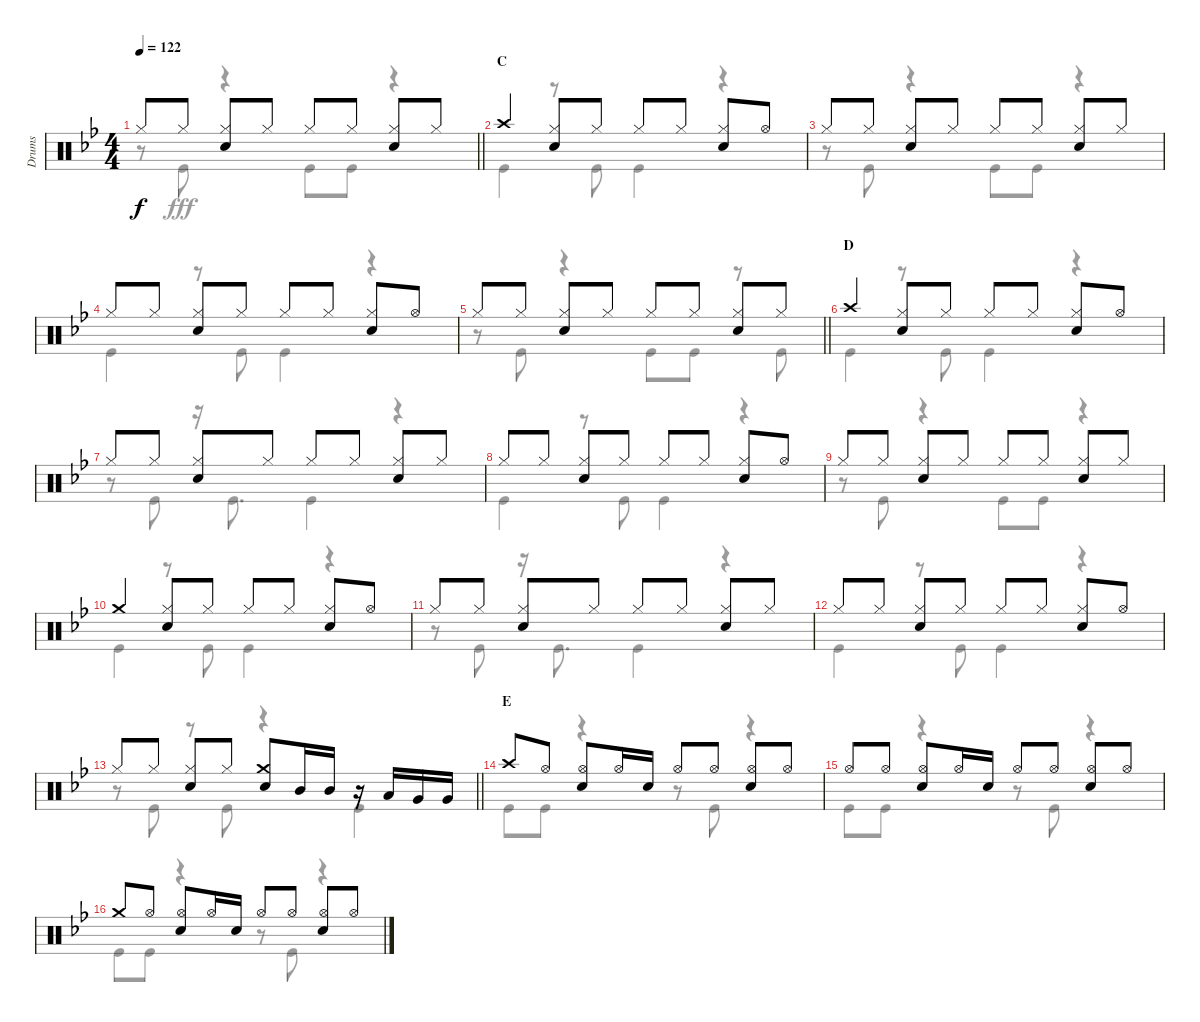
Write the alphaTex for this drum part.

\track ("Drums" "Drums") {instrument percussion}
\staff {score}
\articulation defaults
\voice
\ts (4 4)
\tempo 122
\clef neutral
\barLineRight lightlight
\ks bb "Hi-Hat (closed)".8{dy f} "Hi-Hat (closed)".8
("Hi-Hat (closed)" "Snare (hit) 2").8 "Hi-Hat (closed)".8 "Hi-Hat (closed)".8 "Hi-Hat (closed)".8 ("Hi-Hat (closed)" "Snare (hit) 2").8 "Hi-Hat (closed)".8 |
\section ("" "C")
"Crash high (hit)".4 ("Hi-Hat (closed)" "Snare (hit) 2").8 "Hi-Hat (closed)".8 "Hi-Hat (closed)".8 "Hi-Hat (closed)".8 ("Hi-Hat (closed)" "Snare (hit) 2").8 "Hi-Hat (open)".8 |
"Hi-Hat (closed)".8 "Hi-Hat (closed)".8 ("Hi-Hat (closed)" "Snare (hit) 2").8 "Hi-Hat (closed)".8 "Hi-Hat (closed)".8 "Hi-Hat (closed)".8 ("Hi-Hat (closed)" "Snare (hit) 2").8 "Hi-Hat (closed)".8 |
"Hi-Hat (closed)".8 "Hi-Hat (closed)".8 ("Hi-Hat (closed)" "Snare (hit) 2").8 "Hi-Hat (closed)".8 "Hi-Hat (closed)".8 "Hi-Hat (closed)".8 ("Hi-Hat (closed)" "Snare (hit) 2").8 "Hi-Hat (open)".8 |
\barLineRight lightlight "Hi-Hat (closed)".8 "Hi-Hat (closed)".8
("Hi-Hat (closed)" "Snare (hit) 2").8 "Hi-Hat (closed)".8 "Hi-Hat (closed)".8 "Hi-Hat (closed)".8 ("Hi-Hat (closed)" "Snare (hit) 2").8 "Hi-Hat (closed)".8 |
\section ("" "D")
"Crash high (hit)".4 ("Hi-Hat (closed)" "Snare (hit) 2").8 "Hi-Hat (closed)".8 "Hi-Hat (closed)".8 "Hi-Hat (closed)".8 ("Hi-Hat (closed)" "Snare (hit) 2").8 "Hi-Hat (open)".8 |
"Hi-Hat (closed)".8 "Hi-Hat (closed)".8 ("Hi-Hat (closed)" "Snare (hit) 2").8 "Hi-Hat (closed)".8 "Hi-Hat (closed)".8 "Hi-Hat (closed)".8 ("Hi-Hat (closed)" "Snare (hit) 2").8 "Hi-Hat (closed)".8 |
"Hi-Hat (closed)".8 "Hi-Hat (closed)".8 ("Hi-Hat (closed)" "Snare (hit) 2").8 "Hi-Hat (closed)".8 "Hi-Hat (closed)".8 "Hi-Hat (closed)".8 ("Hi-Hat (closed)" "Snare (hit) 2").8 "Hi-Hat (open)".8 |
"Hi-Hat (closed)".8 "Hi-Hat (closed)".8 ("Hi-Hat (closed)" "Snare (hit) 2").8 "Hi-Hat (closed)".8 "Hi-Hat (closed)".8 "Hi-Hat (closed)".8 ("Hi-Hat (closed)" "Snare (hit) 2").8 "Hi-Hat (closed)".8 |
"Crash medium (hit)".4 ("Hi-Hat (closed)" "Snare (hit) 2").8 "Hi-Hat (closed)".8 "Hi-Hat (closed)".8 "Hi-Hat (closed)".8 ("Hi-Hat (closed)" "Snare (hit) 2").8 "Hi-Hat (open)".8 |
"Hi-Hat (closed)".8 "Hi-Hat (closed)".8 ("Hi-Hat (closed)" "Snare (hit) 2").8 "Hi-Hat (closed)".8 "Hi-Hat (closed)".8 "Hi-Hat (closed)".8 ("Hi-Hat (closed)" "Snare (hit) 2").8 "Hi-Hat (closed)".8 |
"Hi-Hat (closed)".8 "Hi-Hat (closed)".8 ("Hi-Hat (closed)" "Snare (hit) 2").8 "Hi-Hat (closed)".8 "Hi-Hat (closed)".8 "Hi-Hat (closed)".8 ("Hi-Hat (closed)" "Snare (hit) 2").8 "Hi-Hat (open)".8 |
\barLineRight lightlight "Hi-Hat (closed)".8 "Hi-Hat (closed)".8
("Hi-Hat (closed)" "Snare (hit) 2").8 "Hi-Hat (closed)".8 ("Crash medium (hit)" "Snare (hit) 2").8 "Mid Tom (hit)".16 "Mid Tom (hit)".16 r.16 "Low Tom (hit)".16 "Very Low Tom (hit)".16 "Very Low Tom (hit)".16 |
\section ("" "E")
"Crash high (hit)".8 "Hi-Hat (open)".8 ("Hi-Hat (open)" "Snare (hit) 2").8 "Hi-Hat (open)".16 "Snare (hit) 2".16 "Hi-Hat (open)".8 "Hi-Hat (open)".8 ("Hi-Hat (open)" "Snare (hit) 2").8 "Hi-Hat (open)".8 |
"Hi-Hat (open)".8 "Hi-Hat (open)".8 ("Hi-Hat (open)" "Snare (hit) 2").8 "Hi-Hat (open)".16 "Snare (hit) 2".16 "Hi-Hat (open)".8 "Hi-Hat (open)".8 ("Hi-Hat (open)" "Snare (hit) 2").8 "Hi-Hat (open)".8 |
"Crash medium (hit)".8 "Hi-Hat (open)".8 ("Hi-Hat (open)" "Snare (hit) 2").8 "Hi-Hat (open)".16 "Snare (hit) 2".16 "Hi-Hat (open)".8 "Hi-Hat (open)".8 ("Hi-Hat (open)" "Snare (hit) 2").8 "Hi-Hat (open)".8
\voice
\clef neutral
\ottava regular
\simile none
\barLineRight lightlight
\ks bb
r.8{dy fff} "Kick (hit)".8 r.4 "Kick (hit)".8 "Kick (hit)".8 r.4 |
"Kick (hit)".4 r.8 "Kick (hit)".8 "Kick (hit)".4 r.4 |
r.8 "Kick (hit)".8 r.4 "Kick (hit)".8 "Kick (hit)".8 r.4 |
"Kick (hit)".4 r.8 "Kick (hit)".8 "Kick (hit)".4 r.4 |
\barLineRight lightlight
r.8 "Kick (hit)".8 r.4 "Kick (hit)".8 "Kick (hit)".8 r.8 "Kick (hit)".8 |
"Kick (hit)".4 r.8 "Kick (hit)".8 "Kick (hit)".4 r.4 |
r.8 "Kick (hit)".8 r.16 "Kick (hit)".8{d} "Kick (hit)".4 r.4 |
"Kick (hit)".4 r.8 "Kick (hit)".8 "Kick (hit)".4 r.4 |
r.8 "Kick (hit)".8 r.4 "Kick (hit)".8 "Kick (hit)".8 r.4 |
"Kick (hit)".4 r.8 "Kick (hit)".8 "Kick (hit)".4 r.4 |
r.8 "Kick (hit)".8 r.16 "Kick (hit)".8{d} "Kick (hit)".4 r.4 |
"Kick (hit)".4 r.8 "Kick (hit)".8 "Kick (hit)".4 r.4 |
\barLineRight lightlight
r.8 "Kick (hit)".8 r.8 "Kick (hit)".8 r.4 "Kick (hit)".4 |
"Kick (hit)".8 "Kick (hit)".8 r.4 r.8 "Kick (hit)".8 r.4 |
"Kick (hit)".8 "Kick (hit)".8 r.4 r.8 "Kick (hit)".8 r.4 |
"Kick (hit)".8 "Kick (hit)".8 r.4 r.8 "Kick (hit)".8 r.4
